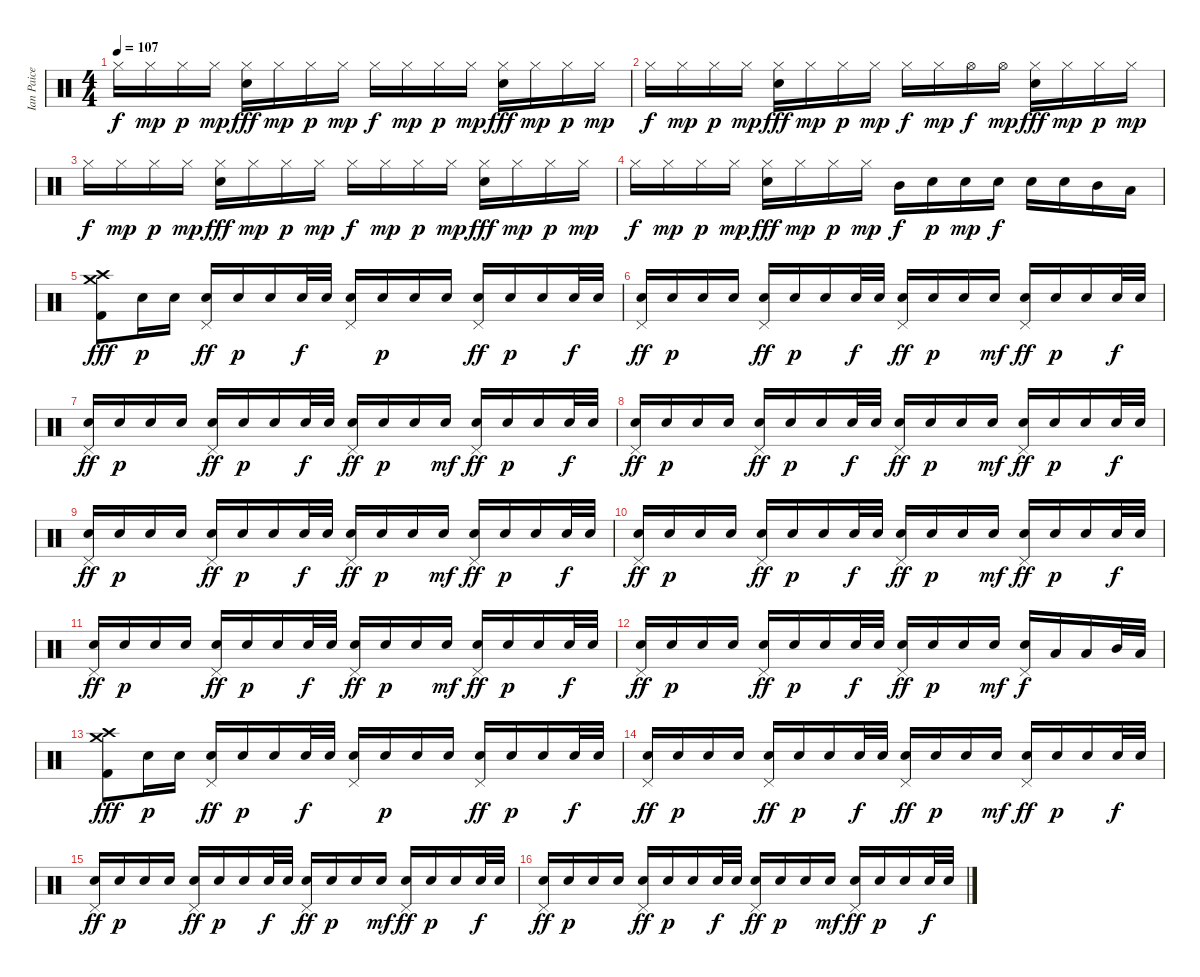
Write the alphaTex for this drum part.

\track ("Ian Paice" "Ian Paice") {instrument percussion}
\staff {score}
\articulation defaults
\ts (4 4)
\tempo 107
\clef neutral
\ks c "Hi-Hat (closed)".16{dy f} "Hi-Hat (closed)".16{dy mp} "Hi-Hat (closed)".16{dy p} "Hi-Hat (closed)".16{dy mp}
("Hi-Hat (closed)" "Electric Snare (hit)").16{dy fff} "Hi-Hat (closed)".16{dy mp} "Hi-Hat (closed)".16{dy p} "Hi-Hat (closed)".16{dy mp} "Hi-Hat (closed)".16{dy f} "Hi-Hat (closed)".16{dy mp} "Hi-Hat (closed)".16{dy p} "Hi-Hat (closed)".16{dy mp} ("Hi-Hat (closed)" "Electric Snare (hit)").16{dy fff} "Hi-Hat (closed)".16{dy mp} "Hi-Hat (closed)".16{dy p} "Hi-Hat (closed)".16{dy mp} |
"Hi-Hat (closed)".16{dy f} "Hi-Hat (closed)".16{dy mp} "Hi-Hat (closed)".16{dy p} "Hi-Hat (closed)".16{dy mp} ("Hi-Hat (closed)" "Electric Snare (hit)").16{dy fff} "Hi-Hat (closed)".16{dy mp} "Hi-Hat (closed)".16{dy p} "Hi-Hat (closed)".16{dy mp} "Hi-Hat (closed)".16{dy f} "Hi-Hat (closed)".16{dy mp} "Hi-Hat (open)".16{dy f} "Hi-Hat (open)".16{dy mp} ("Hi-Hat (closed)" "Electric Snare (hit)").16{dy fff} "Hi-Hat (closed)".16{dy mp} "Hi-Hat (closed)".16{dy p} "Hi-Hat (closed)".16{dy mp} |
"Hi-Hat (closed)".16{dy f} "Hi-Hat (closed)".16{dy mp} "Hi-Hat (closed)".16{dy p} "Hi-Hat (closed)".16{dy mp} ("Hi-Hat (closed)" "Electric Snare (hit)").16{dy fff} "Hi-Hat (closed)".16{dy mp} "Hi-Hat (closed)".16{dy p} "Hi-Hat (closed)".16{dy mp} "Hi-Hat (closed)".16{dy f} "Hi-Hat (closed)".16{dy mp} "Hi-Hat (closed)".16{dy p} "Hi-Hat (closed)".16{dy mp} ("Hi-Hat (closed)" "Electric Snare (hit)").16{dy fff} "Hi-Hat (closed)".16{dy mp} "Hi-Hat (closed)".16{dy p} "Hi-Hat (closed)".16{dy mp} |
"Hi-Hat (closed)".16{dy f} "Hi-Hat (closed)".16{dy mp} "Hi-Hat (closed)".16{dy p} "Hi-Hat (closed)".16{dy mp} ("Hi-Hat (closed)" "Electric Snare (hit)").16{dy fff} "Hi-Hat (closed)".16{dy mp} "Hi-Hat (closed)".16{dy p} "Hi-Hat (closed)".16{dy mp} "Mid Tom (hit)".16{dy f} "Electric Snare (hit)".16{dy p} "Electric Snare (hit)".16{dy mp} "Electric Snare (hit)".16{dy f} "Electric Snare (hit)".16 "Electric Snare (hit)".16 "Mid Tom (hit)".16 "Low Tom (hit)".16 |
("Crash high (hit)" "Crash medium (hit)" "Kick (hit) 2").8{dy fff} "Electric Snare (hit)".16{dy p} "Electric Snare (hit)".16 ("Pedal Hi-Hat (hit)" "Electric Snare (hit)").16{dy ff} "Electric Snare (hit)".16{dy p} "Electric Snare (hit)".16 "Electric Snare (hit)".32{dy f} "Electric Snare (hit)".32 ("Pedal Hi-Hat (hit)" "Electric Snare (hit)").16 "Electric Snare (hit)".16{dy p} "Electric Snare (hit)".16 "Electric Snare (hit)".16 ("Pedal Hi-Hat (hit)" "Electric Snare (hit)").16{dy ff} "Electric Snare (hit)".16{dy p} "Electric Snare (hit)".16 "Electric Snare (hit)".32{dy f} "Electric Snare (hit)".32 |
("Pedal Hi-Hat (hit)" "Electric Snare (hit)").16{dy ff} "Electric Snare (hit)".16{dy p} "Electric Snare (hit)".16 "Electric Snare (hit)".16 ("Pedal Hi-Hat (hit)" "Electric Snare (hit)").16{dy ff} "Electric Snare (hit)".16{dy p} "Electric Snare (hit)".16 "Electric Snare (hit)".32{dy f} "Electric Snare (hit)".32 ("Pedal Hi-Hat (hit)" "Electric Snare (hit)").16{dy ff} "Electric Snare (hit)".16{dy p} "Electric Snare (hit)".16 "Electric Snare (hit)".16{dy mf} ("Pedal Hi-Hat (hit)" "Electric Snare (hit)").16{dy ff} "Electric Snare (hit)".16{dy p} "Electric Snare (hit)".16 "Electric Snare (hit)".32{dy f} "Electric Snare (hit)".32 |
("Pedal Hi-Hat (hit)" "Electric Snare (hit)").16{dy ff} "Electric Snare (hit)".16{dy p} "Electric Snare (hit)".16 "Electric Snare (hit)".16 ("Pedal Hi-Hat (hit)" "Electric Snare (hit)").16{dy ff} "Electric Snare (hit)".16{dy p} "Electric Snare (hit)".16 "Electric Snare (hit)".32{dy f} "Electric Snare (hit)".32 ("Pedal Hi-Hat (hit)" "Electric Snare (hit)").16{dy ff} "Electric Snare (hit)".16{dy p} "Electric Snare (hit)".16 "Electric Snare (hit)".16{dy mf} ("Pedal Hi-Hat (hit)" "Electric Snare (hit)").16{dy ff} "Electric Snare (hit)".16{dy p} "Electric Snare (hit)".16 "Electric Snare (hit)".32{dy f} "Electric Snare (hit)".32 |
("Pedal Hi-Hat (hit)" "Electric Snare (hit)").16{dy ff} "Electric Snare (hit)".16{dy p} "Electric Snare (hit)".16 "Electric Snare (hit)".16 ("Pedal Hi-Hat (hit)" "Electric Snare (hit)").16{dy ff} "Electric Snare (hit)".16{dy p} "Electric Snare (hit)".16 "Electric Snare (hit)".32{dy f} "Electric Snare (hit)".32 ("Pedal Hi-Hat (hit)" "Electric Snare (hit)").16{dy ff} "Electric Snare (hit)".16{dy p} "Electric Snare (hit)".16 "Electric Snare (hit)".16{dy mf} ("Pedal Hi-Hat (hit)" "Electric Snare (hit)").16{dy ff} "Electric Snare (hit)".16{dy p} "Electric Snare (hit)".16 "Electric Snare (hit)".32{dy f} "Electric Snare (hit)".32 |
("Pedal Hi-Hat (hit)" "Electric Snare (hit)").16{dy ff} "Electric Snare (hit)".16{dy p} "Electric Snare (hit)".16 "Electric Snare (hit)".16 ("Pedal Hi-Hat (hit)" "Electric Snare (hit)").16{dy ff} "Electric Snare (hit)".16{dy p} "Electric Snare (hit)".16 "Electric Snare (hit)".32{dy f} "Electric Snare (hit)".32 ("Pedal Hi-Hat (hit)" "Electric Snare (hit)").16{dy ff} "Electric Snare (hit)".16{dy p} "Electric Snare (hit)".16 "Electric Snare (hit)".16{dy mf} ("Pedal Hi-Hat (hit)" "Electric Snare (hit)").16{dy ff} "Electric Snare (hit)".16{dy p} "Electric Snare (hit)".16 "Electric Snare (hit)".32{dy f} "Electric Snare (hit)".32 |
("Pedal Hi-Hat (hit)" "Electric Snare (hit)").16{dy ff} "Electric Snare (hit)".16{dy p} "Electric Snare (hit)".16 "Electric Snare (hit)".16 ("Pedal Hi-Hat (hit)" "Electric Snare (hit)").16{dy ff} "Electric Snare (hit)".16{dy p} "Electric Snare (hit)".16 "Electric Snare (hit)".32{dy f} "Electric Snare (hit)".32 ("Pedal Hi-Hat (hit)" "Electric Snare (hit)").16{dy ff} "Electric Snare (hit)".16{dy p} "Electric Snare (hit)".16 "Electric Snare (hit)".16{dy mf} ("Pedal Hi-Hat (hit)" "Electric Snare (hit)").16{dy ff} "Electric Snare (hit)".16{dy p} "Electric Snare (hit)".16 "Electric Snare (hit)".32{dy f} "Electric Snare (hit)".32 |
("Pedal Hi-Hat (hit)" "Electric Snare (hit)").16{dy ff} "Electric Snare (hit)".16{dy p} "Electric Snare (hit)".16 "Electric Snare (hit)".16 ("Pedal Hi-Hat (hit)" "Electric Snare (hit)").16{dy ff} "Electric Snare (hit)".16{dy p} "Electric Snare (hit)".16 "Electric Snare (hit)".32{dy f} "Electric Snare (hit)".32 ("Pedal Hi-Hat (hit)" "Electric Snare (hit)").16{dy ff} "Electric Snare (hit)".16{dy p} "Electric Snare (hit)".16 "Electric Snare (hit)".16{dy mf} ("Pedal Hi-Hat (hit)" "Electric Snare (hit)").16{dy ff} "Electric Snare (hit)".16{dy p} "Electric Snare (hit)".16 "Electric Snare (hit)".32{dy f} "Electric Snare (hit)".32 |
("Pedal Hi-Hat (hit)" "Electric Snare (hit)").16{dy ff} "Electric Snare (hit)".16{dy p} "Electric Snare (hit)".16 "Electric Snare (hit)".16 ("Pedal Hi-Hat (hit)" "Electric Snare (hit)").16{dy ff} "Electric Snare (hit)".16{dy p} "Electric Snare (hit)".16 "Electric Snare (hit)".32{dy f} "Electric Snare (hit)".32 ("Pedal Hi-Hat (hit)" "Electric Snare (hit)").16{dy ff} "Electric Snare (hit)".16{dy p} "Electric Snare (hit)".16 "Electric Snare (hit)".16{dy mf} ("Pedal Hi-Hat (hit)" "Electric Snare (hit)").16{dy f} "Low Tom (hit)".16 "Low Tom (hit)".16 "Mid Tom (hit)".32 "Low Tom (hit)".32 |
("Crash high (hit)" "Crash medium (hit)" "Kick (hit) 2").8{dy fff} "Electric Snare (hit)".16{dy p} "Electric Snare (hit)".16 ("Pedal Hi-Hat (hit)" "Electric Snare (hit)").16{dy ff} "Electric Snare (hit)".16{dy p} "Electric Snare (hit)".16 "Electric Snare (hit)".32{dy f} "Electric Snare (hit)".32 ("Pedal Hi-Hat (hit)" "Electric Snare (hit)").16 "Electric Snare (hit)".16{dy p} "Electric Snare (hit)".16 "Electric Snare (hit)".16 ("Pedal Hi-Hat (hit)" "Electric Snare (hit)").16{dy ff} "Electric Snare (hit)".16{dy p} "Electric Snare (hit)".16 "Electric Snare (hit)".32{dy f} "Electric Snare (hit)".32 |
("Pedal Hi-Hat (hit)" "Electric Snare (hit)").16{dy ff} "Electric Snare (hit)".16{dy p} "Electric Snare (hit)".16 "Electric Snare (hit)".16 ("Pedal Hi-Hat (hit)" "Electric Snare (hit)").16{dy ff} "Electric Snare (hit)".16{dy p} "Electric Snare (hit)".16 "Electric Snare (hit)".32{dy f} "Electric Snare (hit)".32 ("Pedal Hi-Hat (hit)" "Electric Snare (hit)").16{dy ff} "Electric Snare (hit)".16{dy p} "Electric Snare (hit)".16 "Electric Snare (hit)".16{dy mf} ("Pedal Hi-Hat (hit)" "Electric Snare (hit)").16{dy ff} "Electric Snare (hit)".16{dy p} "Electric Snare (hit)".16 "Electric Snare (hit)".32{dy f} "Electric Snare (hit)".32 |
("Pedal Hi-Hat (hit)" "Electric Snare (hit)").16{dy ff} "Electric Snare (hit)".16{dy p} "Electric Snare (hit)".16 "Electric Snare (hit)".16 ("Pedal Hi-Hat (hit)" "Electric Snare (hit)").16{dy ff} "Electric Snare (hit)".16{dy p} "Electric Snare (hit)".16 "Electric Snare (hit)".32{dy f} "Electric Snare (hit)".32 ("Pedal Hi-Hat (hit)" "Electric Snare (hit)").16{dy ff} "Electric Snare (hit)".16{dy p} "Electric Snare (hit)".16 "Electric Snare (hit)".16{dy mf} ("Pedal Hi-Hat (hit)" "Electric Snare (hit)").16{dy ff} "Electric Snare (hit)".16{dy p} "Electric Snare (hit)".16 "Electric Snare (hit)".32{dy f} "Electric Snare (hit)".32 |
("Pedal Hi-Hat (hit)" "Electric Snare (hit)").16{dy ff} "Electric Snare (hit)".16{dy p} "Electric Snare (hit)".16 "Electric Snare (hit)".16 ("Pedal Hi-Hat (hit)" "Electric Snare (hit)").16{dy ff} "Electric Snare (hit)".16{dy p} "Electric Snare (hit)".16 "Electric Snare (hit)".32{dy f} "Electric Snare (hit)".32 ("Pedal Hi-Hat (hit)" "Electric Snare (hit)").16{dy ff} "Electric Snare (hit)".16{dy p} "Electric Snare (hit)".16 "Electric Snare (hit)".16{dy mf} ("Pedal Hi-Hat (hit)" "Electric Snare (hit)").16{dy ff} "Electric Snare (hit)".16{dy p} "Electric Snare (hit)".16 "Electric Snare (hit)".32{dy f} "Electric Snare (hit)".32
